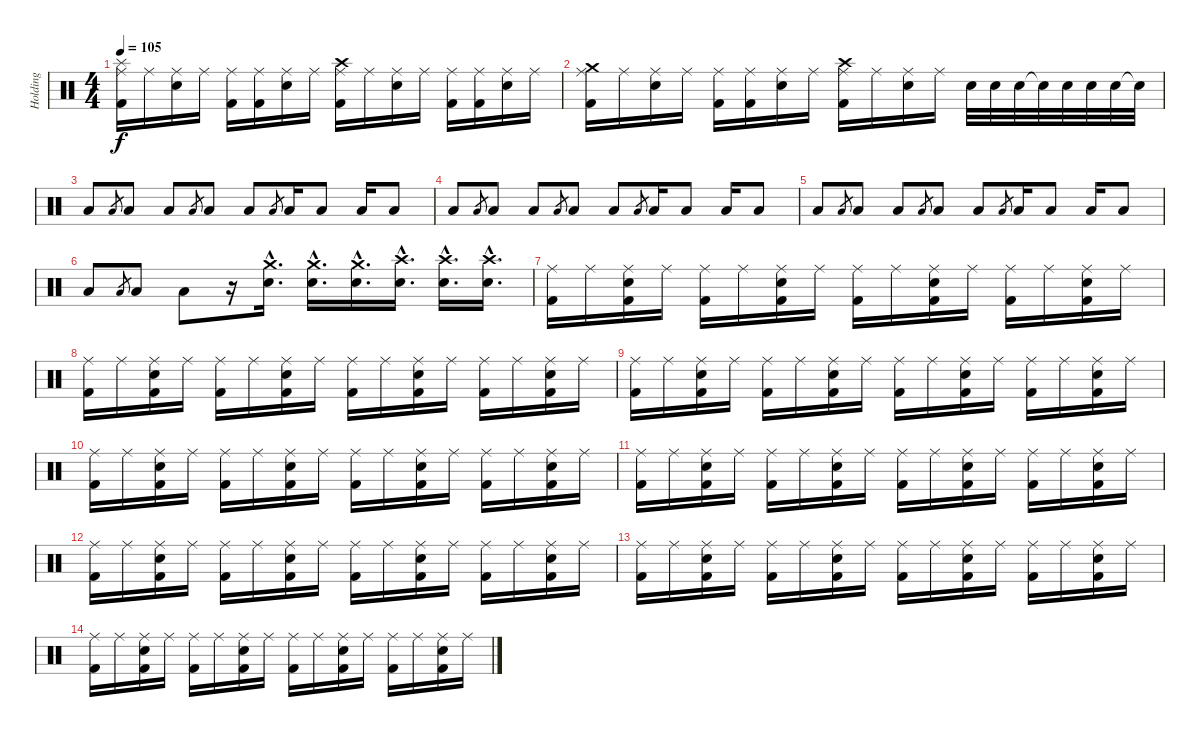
\track ("Holding" "Holding") {instrument percussion}
\staff {score}
\articulation defaults
\ts (4 4)
\tempo 105
\clef neutral
\ks c
("Splash (hit)" "Ride (middle)" "Kick (hit) 2").16{dy f} "Ride (middle)".16 ("Ride (middle)" "Electric Snare (hit)").16 "Ride (middle)".16 ("Ride (middle)" "Kick (hit) 2").16 ("Ride (middle)" "Kick (hit) 2").16 ("Ride (middle)" "Electric Snare (hit)").16 "Ride (middle)".16 ("Crash high (hit)" "Ride (middle)" "Kick (hit) 2").16 "Ride (middle)".16 ("Ride (middle)" "Electric Snare (hit)").16 "Ride (middle)".16 ("Ride (middle)" "Kick (hit) 2").16 ("Ride (middle)" "Kick (hit) 2").16 ("Ride (middle)" "Electric Snare (hit)").16 "Ride (middle)".16 |
("Crash medium (hit)" "Ride (middle)" "Kick (hit) 2").16 "Ride (middle)".16 ("Ride (middle)" "Electric Snare (hit)").16 "Ride (middle)".16 ("Ride (middle)" "Kick (hit) 2").16 ("Ride (middle)" "Kick (hit) 2").16 ("Ride (middle)" "Electric Snare (hit)").16 "Ride (middle)".16 ("Crash high (hit)" "Ride (middle)" "Kick (hit) 2").16 "Ride (middle)".16 ("Ride (middle)" "Electric Snare (hit)").16 "Ride (middle)".16 "Electric Snare (hit)".32 "Electric Snare (hit)".32 "Electric Snare (hit)".32 "Electric Snare (hit)"{t}.32 "Electric Snare (hit)".32 "Electric Snare (hit)".32 "Electric Snare (hit)".32 "Electric Snare (hit)"{t}.32 |
"Low Floor Tom (hit)".8 "Low Floor Tom (hit)".8{gr} "Low Floor Tom (hit)".8 "Low Floor Tom (hit)".8 "Low Floor Tom (hit)".8{gr} "Low Floor Tom (hit)".8 "Low Floor Tom (hit)".8 "Low Floor Tom (hit)".8{gr} "Low Floor Tom (hit)".16 "Low Floor Tom (hit)".8 "Low Floor Tom (hit)".16 "Low Floor Tom (hit)".8 |
"Low Floor Tom (hit)".8 "Low Floor Tom (hit)".8{gr} "Low Floor Tom (hit)".8 "Low Floor Tom (hit)".8 "Low Floor Tom (hit)".8{gr} "Low Floor Tom (hit)".8 "Low Floor Tom (hit)".8 "Low Floor Tom (hit)".8{gr} "Low Floor Tom (hit)".16 "Low Floor Tom (hit)".8 "Low Floor Tom (hit)".16 "Low Floor Tom (hit)".8 |
"Low Floor Tom (hit)".8 "Low Floor Tom (hit)".8{gr} "Low Floor Tom (hit)".8 "Low Floor Tom (hit)".8 "Low Floor Tom (hit)".8{gr} "Low Floor Tom (hit)".8 "Low Floor Tom (hit)".8 "Low Floor Tom (hit)".8{gr} "Low Floor Tom (hit)".16 "Low Floor Tom (hit)".8 "Low Floor Tom (hit)".16 "Low Floor Tom (hit)".8 |
"Low Floor Tom (hit)".8 "Low Floor Tom (hit)".8{gr} "Low Floor Tom (hit)".8 "Low Floor Tom (hit)".8 r.16 ("Crash medium (hit)"{hac} "Electric Snare (hit)"{hac}).16{d} ("Crash medium (hit)"{hac} "Electric Snare (hit)"{hac}).16{d} ("Crash medium (hit)"{hac} "Electric Snare (hit)"{hac}).16{d} ("Crash high (hit)"{hac} "Electric Snare (hit)"{hac}).16{d} ("Crash high (hit)"{hac} "Electric Snare (hit)"{hac}).16{d} ("Crash high (hit)"{hac} "Electric Snare (hit)"{hac}).16{d} |
("Ride (middle)" "Kick (hit) 2").16 "Ride (middle)".16 ("Ride (middle)" "Electric Snare (hit)" "Kick (hit) 2").16 "Ride (middle)".16 ("Ride (middle)" "Kick (hit) 2").16 "Ride (middle)".16 ("Ride (middle)" "Electric Snare (hit)" "Kick (hit) 2").16 "Ride (middle)".16 ("Ride (middle)" "Kick (hit) 2").16 "Ride (middle)".16 ("Ride (middle)" "Electric Snare (hit)" "Kick (hit) 2").16 "Ride (middle)".16 ("Ride (middle)" "Kick (hit) 2").16 "Ride (middle)".16 ("Ride (middle)" "Electric Snare (hit)" "Kick (hit) 2").16 "Ride (middle)".16 |
("Ride (middle)" "Kick (hit) 2").16 "Ride (middle)".16 ("Ride (middle)" "Electric Snare (hit)" "Kick (hit) 2").16 "Ride (middle)".16 ("Ride (middle)" "Kick (hit) 2").16 "Ride (middle)".16 ("Ride (middle)" "Electric Snare (hit)" "Kick (hit) 2").16 "Ride (middle)".16 ("Ride (middle)" "Kick (hit) 2").16 "Ride (middle)".16 ("Ride (middle)" "Electric Snare (hit)" "Kick (hit) 2").16 "Ride (middle)".16 ("Ride (middle)" "Kick (hit) 2").16 "Ride (middle)".16 ("Ride (middle)" "Electric Snare (hit)" "Kick (hit) 2").16 "Ride (middle)".16 |
("Ride (middle)" "Kick (hit) 2").16 "Ride (middle)".16 ("Ride (middle)" "Electric Snare (hit)" "Kick (hit) 2").16 "Ride (middle)".16 ("Ride (middle)" "Kick (hit) 2").16 "Ride (middle)".16 ("Ride (middle)" "Electric Snare (hit)" "Kick (hit) 2").16 "Ride (middle)".16 ("Ride (middle)" "Kick (hit) 2").16 "Ride (middle)".16 ("Ride (middle)" "Electric Snare (hit)" "Kick (hit) 2").16 "Ride (middle)".16 ("Ride (middle)" "Kick (hit) 2").16 "Ride (middle)".16 ("Ride (middle)" "Electric Snare (hit)" "Kick (hit) 2").16 "Ride (middle)".16 |
("Ride (middle)" "Kick (hit) 2").16 "Ride (middle)".16 ("Ride (middle)" "Electric Snare (hit)" "Kick (hit) 2").16 "Ride (middle)".16 ("Ride (middle)" "Kick (hit) 2").16 "Ride (middle)".16 ("Ride (middle)" "Electric Snare (hit)" "Kick (hit) 2").16 "Ride (middle)".16 ("Ride (middle)" "Kick (hit) 2").16 "Ride (middle)".16 ("Ride (middle)" "Electric Snare (hit)" "Kick (hit) 2").16 "Ride (middle)".16 ("Ride (middle)" "Kick (hit) 2").16 "Ride (middle)".16 ("Ride (middle)" "Electric Snare (hit)" "Kick (hit) 2").16 "Ride (middle)".16 |
("Ride (middle)" "Kick (hit) 2").16 "Ride (middle)".16 ("Ride (middle)" "Electric Snare (hit)" "Kick (hit) 2").16 "Ride (middle)".16 ("Ride (middle)" "Kick (hit) 2").16 "Ride (middle)".16 ("Ride (middle)" "Electric Snare (hit)" "Kick (hit) 2").16 "Ride (middle)".16 ("Ride (middle)" "Kick (hit) 2").16 "Ride (middle)".16 ("Ride (middle)" "Electric Snare (hit)" "Kick (hit) 2").16 "Ride (middle)".16 ("Ride (middle)" "Kick (hit) 2").16 "Ride (middle)".16 ("Ride (middle)" "Electric Snare (hit)" "Kick (hit) 2").16 "Ride (middle)".16 |
("Ride (middle)" "Kick (hit) 2").16 "Ride (middle)".16 ("Ride (middle)" "Electric Snare (hit)" "Kick (hit) 2").16 "Ride (middle)".16 ("Ride (middle)" "Kick (hit) 2").16 "Ride (middle)".16 ("Ride (middle)" "Electric Snare (hit)" "Kick (hit) 2").16 "Ride (middle)".16 ("Ride (middle)" "Kick (hit) 2").16 "Ride (middle)".16 ("Ride (middle)" "Electric Snare (hit)" "Kick (hit) 2").16 "Ride (middle)".16 ("Ride (middle)" "Kick (hit) 2").16 "Ride (middle)".16 ("Ride (middle)" "Electric Snare (hit)" "Kick (hit) 2").16 "Ride (middle)".16 |
("Ride (middle)" "Kick (hit) 2").16 "Ride (middle)".16 ("Ride (middle)" "Electric Snare (hit)" "Kick (hit) 2").16 "Ride (middle)".16 ("Ride (middle)" "Kick (hit) 2").16 "Ride (middle)".16 ("Ride (middle)" "Electric Snare (hit)" "Kick (hit) 2").16 "Ride (middle)".16 ("Ride (middle)" "Kick (hit) 2").16 "Ride (middle)".16 ("Ride (middle)" "Electric Snare (hit)" "Kick (hit) 2").16 "Ride (middle)".16 ("Ride (middle)" "Kick (hit) 2").16 "Ride (middle)".16 ("Ride (middle)" "Electric Snare (hit)" "Kick (hit) 2").16 "Ride (middle)".16 |
("Ride (middle)" "Kick (hit) 2").16 "Ride (middle)".16 ("Ride (middle)" "Electric Snare (hit)" "Kick (hit) 2").16 "Ride (middle)".16 ("Ride (middle)" "Kick (hit) 2").16 "Ride (middle)".16 ("Ride (middle)" "Electric Snare (hit)" "Kick (hit) 2").16 "Ride (middle)".16 ("Ride (middle)" "Kick (hit) 2").16 "Ride (middle)".16 ("Ride (middle)" "Electric Snare (hit)" "Kick (hit) 2").16 "Ride (middle)".16 ("Ride (middle)" "Kick (hit) 2").16 "Ride (middle)".16 ("Ride (middle)" "Electric Snare (hit)" "Kick (hit) 2").16 "Ride (middle)".16
